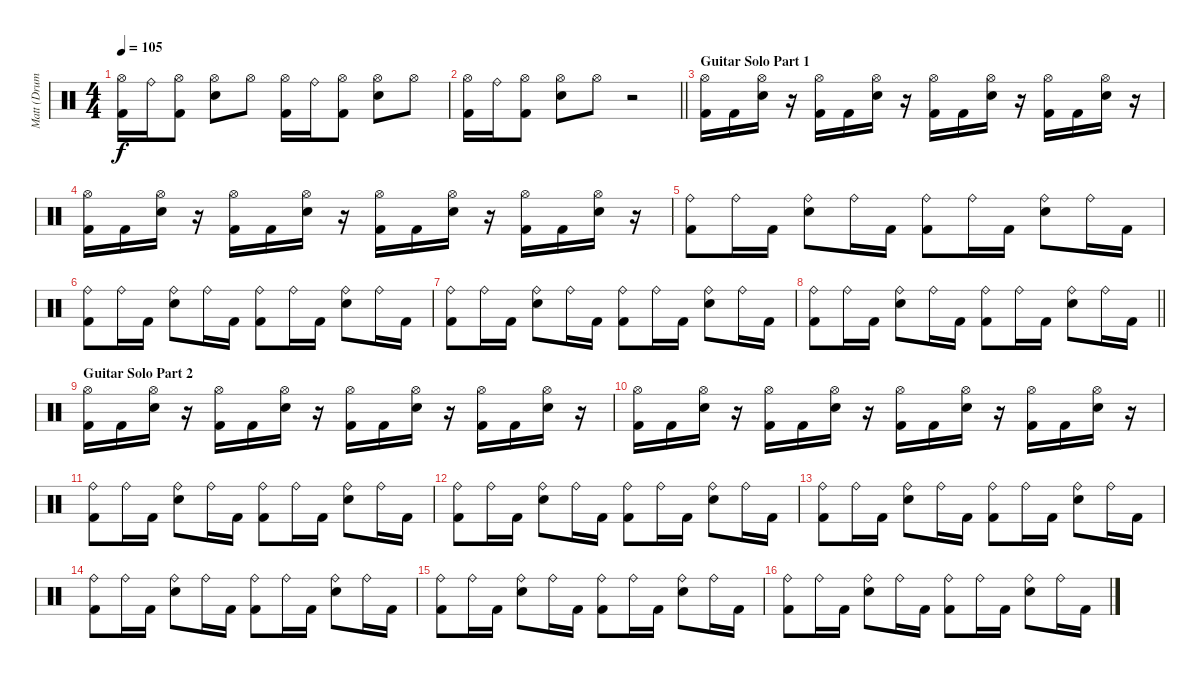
\track ("Matt (Drums)" "Matt (Drum") {instrument percussion}
\staff {score}
\articulation defaults
\ts (4 4)
\tempo 105
\clef neutral
\ks c
("Hi-Hat (open)" "Kick (hit) 2").16{dy f} "Ride (bell)".16 ("Hi-Hat (open)" "Kick (hit) 2").8 ("Hi-Hat (open)" "Electric Snare (hit)").8 "Hi-Hat (open)".8 ("Hi-Hat (open)" "Kick (hit) 2").16 "Ride (bell)".16 ("Hi-Hat (open)" "Kick (hit) 2").8 ("Hi-Hat (open)" "Electric Snare (hit)").8 "Hi-Hat (open)".8 |
\barLineRight lightlight
("Hi-Hat (open)" "Kick (hit) 2").16 "Ride (bell)".16 ("Hi-Hat (open)" "Kick (hit) 2").8 ("Hi-Hat (open)" "Electric Snare (hit)").8 "Hi-Hat (open)".8 r.2 |
\section ("" "Guitar Solo Part 1")
("Hi-Hat (open)" "Kick (hit) 2").16 "Kick (hit) 2".16 ("Hi-Hat (open)" "Electric Snare (hit)").16 r.16 ("Hi-Hat (open)" "Kick (hit) 2").16 "Kick (hit) 2".16 ("Hi-Hat (open)" "Electric Snare (hit)").16 r.16 ("Hi-Hat (open)" "Kick (hit) 2").16 "Kick (hit) 2".16 ("Hi-Hat (open)" "Electric Snare (hit)").16 r.16 ("Hi-Hat (open)" "Kick (hit) 2").16 "Kick (hit) 2".16 ("Hi-Hat (open)" "Electric Snare (hit)").16 r.16 |
("Hi-Hat (open)" "Kick (hit) 2").16 "Kick (hit) 2".16 ("Hi-Hat (open)" "Electric Snare (hit)").16 r.16 ("Hi-Hat (open)" "Kick (hit) 2").16 "Kick (hit) 2".16 ("Hi-Hat (open)" "Electric Snare (hit)").16 r.16 ("Hi-Hat (open)" "Kick (hit) 2").16 "Kick (hit) 2".16 ("Hi-Hat (open)" "Electric Snare (hit)").16 r.16 ("Hi-Hat (open)" "Kick (hit) 2").16 "Kick (hit) 2".16 ("Hi-Hat (open)" "Electric Snare (hit)").16 r.16 |
("Ride (bell)" "Kick (hit) 2").8 "Ride (bell)".16 "Kick (hit) 2".16 ("Ride (bell)" "Electric Snare (hit)").8 "Ride (bell)".16 "Kick (hit) 2".16 ("Ride (bell)" "Kick (hit) 2").8 "Ride (bell)".16 "Kick (hit) 2".16 ("Ride (bell)" "Electric Snare (hit)").8 "Ride (bell)".16 "Kick (hit) 2".16 |
("Ride (bell)" "Kick (hit) 2").8 "Ride (bell)".16 "Kick (hit) 2".16 ("Ride (bell)" "Electric Snare (hit)").8 "Ride (bell)".16 "Kick (hit) 2".16 ("Ride (bell)" "Kick (hit) 2").8 "Ride (bell)".16 "Kick (hit) 2".16 ("Ride (bell)" "Electric Snare (hit)").8 "Ride (bell)".16 "Kick (hit) 2".16 |
("Ride (bell)" "Kick (hit) 2").8 "Ride (bell)".16 "Kick (hit) 2".16 ("Ride (bell)" "Electric Snare (hit)").8 "Ride (bell)".16 "Kick (hit) 2".16 ("Ride (bell)" "Kick (hit) 2").8 "Ride (bell)".16 "Kick (hit) 2".16 ("Ride (bell)" "Electric Snare (hit)").8 "Ride (bell)".16 "Kick (hit) 2".16 |
\barLineRight lightlight
("Ride (bell)" "Kick (hit) 2").8 "Ride (bell)".16 "Kick (hit) 2".16 ("Ride (bell)" "Electric Snare (hit)").8 "Ride (bell)".16 "Kick (hit) 2".16 ("Ride (bell)" "Kick (hit) 2").8 "Ride (bell)".16 "Kick (hit) 2".16 ("Ride (bell)" "Electric Snare (hit)").8 "Ride (bell)".16 "Kick (hit) 2".16 |
\section ("" "Guitar Solo Part 2")
("Hi-Hat (open)" "Kick (hit) 2").16 "Kick (hit) 2".16 ("Hi-Hat (open)" "Electric Snare (hit)").16 r.16 ("Hi-Hat (open)" "Kick (hit) 2").16 "Kick (hit) 2".16 ("Hi-Hat (open)" "Electric Snare (hit)").16 r.16 ("Hi-Hat (open)" "Kick (hit) 2").16 "Kick (hit) 2".16 ("Hi-Hat (open)" "Electric Snare (hit)").16 r.16 ("Hi-Hat (open)" "Kick (hit) 2").16 "Kick (hit) 2".16 ("Hi-Hat (open)" "Electric Snare (hit)").16 r.16 |
("Hi-Hat (open)" "Kick (hit) 2").16 "Kick (hit) 2".16 ("Hi-Hat (open)" "Electric Snare (hit)").16 r.16 ("Hi-Hat (open)" "Kick (hit) 2").16 "Kick (hit) 2".16 ("Hi-Hat (open)" "Electric Snare (hit)").16 r.16 ("Hi-Hat (open)" "Kick (hit) 2").16 "Kick (hit) 2".16 ("Hi-Hat (open)" "Electric Snare (hit)").16 r.16 ("Hi-Hat (open)" "Kick (hit) 2").16 "Kick (hit) 2".16 ("Hi-Hat (open)" "Electric Snare (hit)").16 r.16 |
("Ride (bell)" "Kick (hit) 2").8 "Ride (bell)".16 "Kick (hit) 2".16 ("Ride (bell)" "Electric Snare (hit)").8 "Ride (bell)".16 "Kick (hit) 2".16 ("Ride (bell)" "Kick (hit) 2").8 "Ride (bell)".16 "Kick (hit) 2".16 ("Ride (bell)" "Electric Snare (hit)").8 "Ride (bell)".16 "Kick (hit) 2".16 |
("Ride (bell)" "Kick (hit) 2").8 "Ride (bell)".16 "Kick (hit) 2".16 ("Ride (bell)" "Electric Snare (hit)").8 "Ride (bell)".16 "Kick (hit) 2".16 ("Ride (bell)" "Kick (hit) 2").8 "Ride (bell)".16 "Kick (hit) 2".16 ("Ride (bell)" "Electric Snare (hit)").8 "Ride (bell)".16 "Kick (hit) 2".16 |
("Ride (bell)" "Kick (hit) 2").8 "Ride (bell)".16 "Kick (hit) 2".16 ("Ride (bell)" "Electric Snare (hit)").8 "Ride (bell)".16 "Kick (hit) 2".16 ("Ride (bell)" "Kick (hit) 2").8 "Ride (bell)".16 "Kick (hit) 2".16 ("Ride (bell)" "Electric Snare (hit)").8 "Ride (bell)".16 "Kick (hit) 2".16 |
("Ride (bell)" "Kick (hit) 2").8 "Ride (bell)".16 "Kick (hit) 2".16 ("Ride (bell)" "Electric Snare (hit)").8 "Ride (bell)".16 "Kick (hit) 2".16 ("Ride (bell)" "Kick (hit) 2").8 "Ride (bell)".16 "Kick (hit) 2".16 ("Ride (bell)" "Electric Snare (hit)").8 "Ride (bell)".16 "Kick (hit) 2".16 |
("Ride (bell)" "Kick (hit) 2").8 "Ride (bell)".16 "Kick (hit) 2".16 ("Ride (bell)" "Electric Snare (hit)").8 "Ride (bell)".16 "Kick (hit) 2".16 ("Ride (bell)" "Kick (hit) 2").8 "Ride (bell)".16 "Kick (hit) 2".16 ("Ride (bell)" "Electric Snare (hit)").8 "Ride (bell)".16 "Kick (hit) 2".16 |
("Ride (bell)" "Kick (hit) 2").8 "Ride (bell)".16 "Kick (hit) 2".16 ("Ride (bell)" "Electric Snare (hit)").8 "Ride (bell)".16 "Kick (hit) 2".16 ("Ride (bell)" "Kick (hit) 2").8 "Ride (bell)".16 "Kick (hit) 2".16 ("Ride (bell)" "Electric Snare (hit)").8 "Ride (bell)".16 "Kick (hit) 2".16
